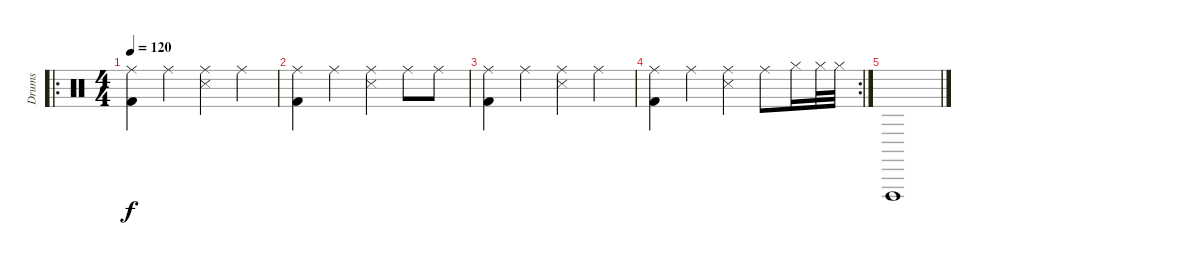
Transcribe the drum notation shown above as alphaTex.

\track ("Drums" "Drums") {instrument percussion}
\staff {score}
\articulation defaults
\ro
\ts (4 4)
\tempo 120
\clef neutral
\ks c
("Ride (middle)" "Kick (hit) 2").4{dy f} "Ride (middle)".4 ("Ride (middle)" "Snare (side stick) 3").4 "Ride (middle)".4 |
("Ride (middle)" "Kick (hit) 2").4 "Ride (middle)".4 ("Ride (middle)" "Snare (side stick) 3").4 "Ride (middle)".8 "Ride (middle)".8 |
("Ride (middle)" "Kick (hit) 2").4 "Ride (middle)".4 ("Ride (middle)" "Snare (side stick) 3").4 "Ride (middle)".4 |
\rc 2
("Ride (middle)" "Kick (hit) 2").4 "Ride (middle)".4 ("Ride (middle)" "Snare (side stick) 3").4 "Ride (middle)".8 "Hi-Hat (closed)".16 "Hi-Hat (closed)".32 "Hi-Hat (closed)".32 |
"Vibraslap (hit)".1
